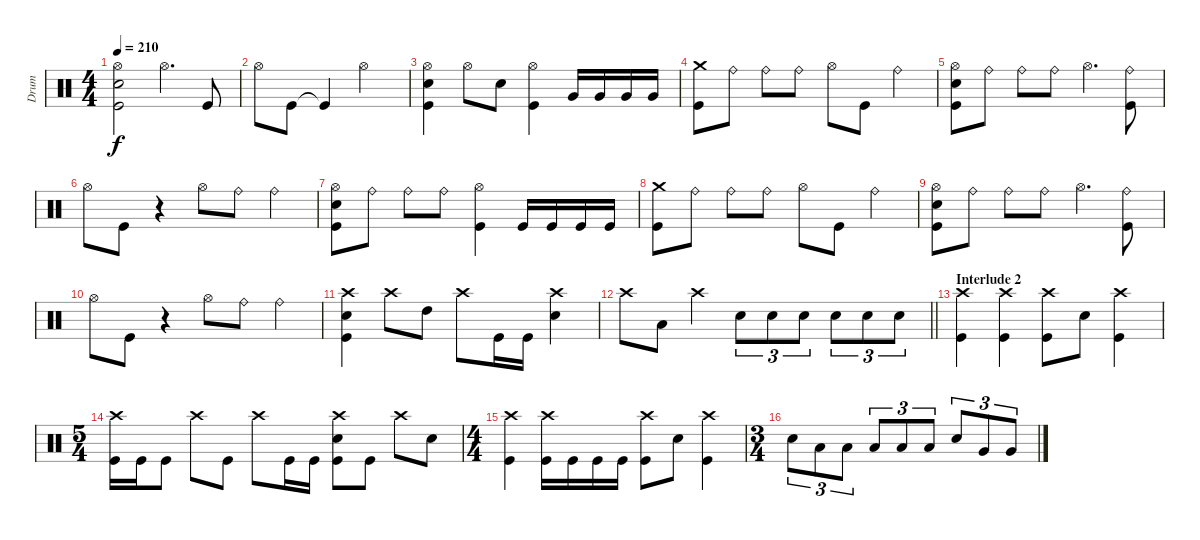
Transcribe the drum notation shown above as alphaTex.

\track ("Drum" "Drum") {instrument percussion}
\staff {score}
\articulation defaults
\ts (4 4)
\tempo 210
\clef neutral
\ks c
("Hi-Hat (open)" "Snare (hit) 2" "Kick (hit)").2{dy f} "Hi-Hat (open)".4{d} "Kick (hit)".8 |
"Hi-Hat (open)".8 "Kick (hit)".8 "Kick (hit)"{t}.4 "Hi-Hat (open)".2 |
("Hi-Hat (open)" "Snare (hit) 2" "Kick (hit)").4 "Hi-Hat (open)".8 "Snare (hit) 2".8 ("Hi-Hat (open)" "Kick (hit)").4 "Very Low Tom (hit)".16 "Very Low Tom (hit)".16 "Very Low Tom (hit)".16 "Very Low Tom (hit)".16 |
("Crash medium (hit)" "Kick (hit)").8 "Ride (bell)".8 "Ride (bell)".8 "Ride (bell)".8 "Hi-Hat (open)".8 "Kick (hit)".8 "Ride (bell)".4 |
("Hi-Hat (open)" "Snare (hit) 2" "Kick (hit)").8 "Ride (bell)".8 "Ride (bell)".8 "Ride (bell)".8 "Hi-Hat (open)".4{d} ("Ride (bell)" "Kick (hit)").8 |
"Hi-Hat (open)".8 "Kick (hit)".8 r.4 "Hi-Hat (open)".8 "Ride (bell)".8 "Ride (bell)".4 |
("Hi-Hat (open)" "Snare (hit) 2" "Kick (hit)").8 "Ride (bell)".8 "Ride (bell)".8 "Ride (bell)".8 ("Hi-Hat (open)" "Kick (hit)").4 "Kick (hit)".16 "Kick (hit)".16 "Kick (hit)".16 "Kick (hit)".16 |
("Crash medium (hit)" "Kick (hit)").8 "Ride (bell)".8 "Ride (bell)".8 "Ride (bell)".8 "Hi-Hat (open)".8 "Kick (hit)".8 "Ride (bell)".4 |
("Hi-Hat (open)" "Snare (hit) 2" "Kick (hit)").8 "Ride (bell)".8 "Ride (bell)".8 "Ride (bell)".8 "Hi-Hat (open)".4{d} ("Ride (bell)" "Kick (hit)").8 |
"Hi-Hat (open)".8 "Kick (hit)".8 r.4 "Hi-Hat (open)".8 "Ride (bell)".8 "Ride (bell)".4 |
("Crash high (hit)" "Snare (hit) 2" "Kick (hit)").4 "Crash high (hit)".8 "High Tom (hit)".8 "Crash high (hit)".8 "Kick (hit)".16 "Kick (hit)".16 ("Crash high (hit)" "Snare (hit) 2").4 |
\barLineRight lightlight "Crash high (hit)".8 "Low Tom (hit)".8 "Crash high (hit)".4 "Snare (hit) 2".8{tu (3 2)} "Snare (hit) 2".8{tu (3 2)} "Snare (hit) 2".8{tu (3 2)} "Snare (hit) 2".8{tu (3 2)} "Snare (hit) 2".8{tu (3 2)} "Snare (hit) 2".8{tu (3 2)}
|
\section ("" "Interlude 2")
("Crash high (hit)" "Kick (hit)").4 ("Crash high (hit)" "Kick (hit)").4 ("Crash high (hit)" "Kick (hit)").8 "Snare (hit) 2".8 ("Crash high (hit)" "Kick (hit)").4 |
\ts (5 4)
("Crash high (hit)" "Kick (hit)").16 "Kick (hit)".16 "Kick (hit)".8 "Crash high (hit)".8 "Kick (hit)".8 "Crash high (hit)".8 "Kick (hit)".16 "Kick (hit)".16 ("Crash high (hit)" "Snare (hit) 2" "Kick (hit)").8 "Kick (hit)".8 "Crash high (hit)".8 "Snare (hit) 2".8 |
\ts (4 4)
("Crash high (hit)" "Kick (hit)").4 ("Crash high (hit)" "Kick (hit)").16 "Kick (hit)".16 "Kick (hit)".16 "Kick (hit)".16 ("Crash high (hit)" "Kick (hit)").8 "Snare (hit) 2".8 ("Crash high (hit)" "Kick (hit)").4 |
\ts (3 4)
"Snare (hit) 2".8{tu (3 2)} "Low Tom (hit)".8{tu (3 2)} "Low Tom (hit)".8{tu (3 2)} "Low Tom (hit)".8{tu (3 2)} "Low Tom (hit)".8{tu (3 2)} "Low Tom (hit)".8{tu (3 2)} "Snare (hit) 2".8{tu (3 2)} "Very Low Tom (hit)".8{tu (3 2)} "Very Low Tom (hit)".8{tu (3 2)}
